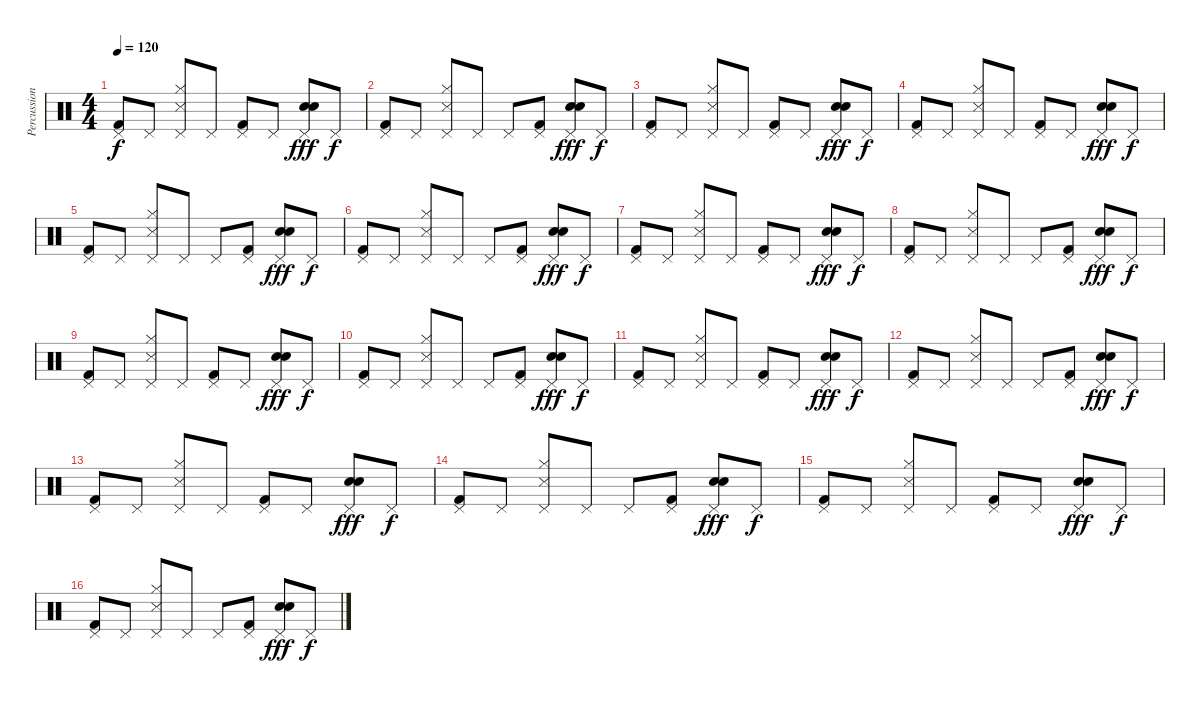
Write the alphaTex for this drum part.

\track ("Percussion" "Percussion") {instrument percussion}
\staff {score}
\articulation defaults
\ts (4 4)
\tempo 120
\clef neutral
\ks c
("Pedal Hi-Hat (hit)" "Kick (hit) 2").8{dy f} "Pedal Hi-Hat (hit)".8 ("Pedal Hi-Hat (hit)" "Hi-Hat (closed)" "Snare (side stick) 3").8 "Pedal Hi-Hat (hit)".8 ("Pedal Hi-Hat (hit)" "Kick (hit) 2").8 "Pedal Hi-Hat (hit)".8 ("Pedal Hi-Hat (hit)" "Hand Clap (hit)" "Hand Clap (hit)").8{dy fff} "Pedal Hi-Hat (hit)".8{dy f} |
("Pedal Hi-Hat (hit)" "Kick (hit) 2").8 "Pedal Hi-Hat (hit)".8 ("Pedal Hi-Hat (hit)" "Hi-Hat (closed)" "Snare (side stick) 3").8 "Pedal Hi-Hat (hit)".8 "Pedal Hi-Hat (hit)".8 ("Pedal Hi-Hat (hit)" "Kick (hit) 2").8 ("Pedal Hi-Hat (hit)" "Hand Clap (hit)" "Hand Clap (hit)").8{dy fff} "Pedal Hi-Hat (hit)".8{dy f} |
("Pedal Hi-Hat (hit)" "Kick (hit) 2").8 "Pedal Hi-Hat (hit)".8 ("Pedal Hi-Hat (hit)" "Hi-Hat (closed)" "Snare (side stick) 3").8 "Pedal Hi-Hat (hit)".8 ("Pedal Hi-Hat (hit)" "Kick (hit) 2").8 "Pedal Hi-Hat (hit)".8 ("Pedal Hi-Hat (hit)" "Hand Clap (hit)" "Hand Clap (hit)").8{dy fff} "Pedal Hi-Hat (hit)".8{dy f} |
("Pedal Hi-Hat (hit)" "Kick (hit) 2").8 "Pedal Hi-Hat (hit)".8 ("Pedal Hi-Hat (hit)" "Hi-Hat (closed)" "Snare (side stick) 3").8 "Pedal Hi-Hat (hit)".8 ("Pedal Hi-Hat (hit)" "Kick (hit) 2").8 "Pedal Hi-Hat (hit)".8 ("Pedal Hi-Hat (hit)" "Hand Clap (hit)" "Hand Clap (hit)").8{dy fff} "Pedal Hi-Hat (hit)".8{dy f} |
("Pedal Hi-Hat (hit)" "Kick (hit) 2").8 "Pedal Hi-Hat (hit)".8 ("Pedal Hi-Hat (hit)" "Hi-Hat (closed)" "Snare (side stick) 3").8 "Pedal Hi-Hat (hit)".8 "Pedal Hi-Hat (hit)".8 ("Pedal Hi-Hat (hit)" "Kick (hit) 2").8 ("Pedal Hi-Hat (hit)" "Hand Clap (hit)" "Hand Clap (hit)").8{dy fff} "Pedal Hi-Hat (hit)".8{dy f} |
("Pedal Hi-Hat (hit)" "Kick (hit) 2").8 "Pedal Hi-Hat (hit)".8 ("Pedal Hi-Hat (hit)" "Hi-Hat (closed)" "Snare (side stick) 3").8 "Pedal Hi-Hat (hit)".8 "Pedal Hi-Hat (hit)".8 ("Pedal Hi-Hat (hit)" "Kick (hit) 2").8 ("Pedal Hi-Hat (hit)" "Hand Clap (hit)" "Hand Clap (hit)").8{dy fff} "Pedal Hi-Hat (hit)".8{dy f} |
("Pedal Hi-Hat (hit)" "Kick (hit) 2").8 "Pedal Hi-Hat (hit)".8 ("Pedal Hi-Hat (hit)" "Hi-Hat (closed)" "Snare (side stick) 3").8 "Pedal Hi-Hat (hit)".8 ("Pedal Hi-Hat (hit)" "Kick (hit) 2").8 "Pedal Hi-Hat (hit)".8 ("Pedal Hi-Hat (hit)" "Hand Clap (hit)" "Hand Clap (hit)").8{dy fff} "Pedal Hi-Hat (hit)".8{dy f} |
("Pedal Hi-Hat (hit)" "Kick (hit) 2").8 "Pedal Hi-Hat (hit)".8 ("Pedal Hi-Hat (hit)" "Hi-Hat (closed)" "Snare (side stick) 3").8 "Pedal Hi-Hat (hit)".8 "Pedal Hi-Hat (hit)".8 ("Pedal Hi-Hat (hit)" "Kick (hit) 2").8 ("Pedal Hi-Hat (hit)" "Hand Clap (hit)" "Hand Clap (hit)").8{dy fff} "Pedal Hi-Hat (hit)".8{dy f} |
("Pedal Hi-Hat (hit)" "Kick (hit) 2").8 "Pedal Hi-Hat (hit)".8 ("Pedal Hi-Hat (hit)" "Hi-Hat (closed)" "Snare (side stick) 3").8 "Pedal Hi-Hat (hit)".8 ("Pedal Hi-Hat (hit)" "Kick (hit) 2").8 "Pedal Hi-Hat (hit)".8 ("Pedal Hi-Hat (hit)" "Hand Clap (hit)" "Hand Clap (hit)").8{dy fff} "Pedal Hi-Hat (hit)".8{dy f} |
("Pedal Hi-Hat (hit)" "Kick (hit) 2").8 "Pedal Hi-Hat (hit)".8 ("Pedal Hi-Hat (hit)" "Hi-Hat (closed)" "Snare (side stick) 3").8 "Pedal Hi-Hat (hit)".8 "Pedal Hi-Hat (hit)".8 ("Pedal Hi-Hat (hit)" "Kick (hit) 2").8 ("Pedal Hi-Hat (hit)" "Hand Clap (hit)" "Hand Clap (hit)").8{dy fff} "Pedal Hi-Hat (hit)".8{dy f} |
("Pedal Hi-Hat (hit)" "Kick (hit) 2").8 "Pedal Hi-Hat (hit)".8 ("Pedal Hi-Hat (hit)" "Hi-Hat (closed)" "Snare (side stick) 3").8 "Pedal Hi-Hat (hit)".8 ("Pedal Hi-Hat (hit)" "Kick (hit) 2").8 "Pedal Hi-Hat (hit)".8 ("Pedal Hi-Hat (hit)" "Hand Clap (hit)" "Hand Clap (hit)").8{dy fff} "Pedal Hi-Hat (hit)".8{dy f} |
("Pedal Hi-Hat (hit)" "Kick (hit) 2").8 "Pedal Hi-Hat (hit)".8 ("Pedal Hi-Hat (hit)" "Hi-Hat (closed)" "Snare (side stick) 3").8 "Pedal Hi-Hat (hit)".8 "Pedal Hi-Hat (hit)".8 ("Pedal Hi-Hat (hit)" "Kick (hit) 2").8 ("Pedal Hi-Hat (hit)" "Hand Clap (hit)" "Hand Clap (hit)").8{dy fff} "Pedal Hi-Hat (hit)".8{dy f} |
("Pedal Hi-Hat (hit)" "Kick (hit) 2").8 "Pedal Hi-Hat (hit)".8 ("Pedal Hi-Hat (hit)" "Hi-Hat (closed)" "Snare (side stick) 3").8 "Pedal Hi-Hat (hit)".8 ("Pedal Hi-Hat (hit)" "Kick (hit) 2").8 "Pedal Hi-Hat (hit)".8 ("Pedal Hi-Hat (hit)" "Hand Clap (hit)" "Hand Clap (hit)").8{dy fff} "Pedal Hi-Hat (hit)".8{dy f} |
("Pedal Hi-Hat (hit)" "Kick (hit) 2").8 "Pedal Hi-Hat (hit)".8 ("Pedal Hi-Hat (hit)" "Hi-Hat (closed)" "Snare (side stick) 3").8 "Pedal Hi-Hat (hit)".8 "Pedal Hi-Hat (hit)".8 ("Pedal Hi-Hat (hit)" "Kick (hit) 2").8 ("Pedal Hi-Hat (hit)" "Hand Clap (hit)" "Hand Clap (hit)").8{dy fff} "Pedal Hi-Hat (hit)".8{dy f} |
("Pedal Hi-Hat (hit)" "Kick (hit) 2").8 "Pedal Hi-Hat (hit)".8 ("Pedal Hi-Hat (hit)" "Hi-Hat (closed)" "Snare (side stick) 3").8 "Pedal Hi-Hat (hit)".8 ("Pedal Hi-Hat (hit)" "Kick (hit) 2").8 "Pedal Hi-Hat (hit)".8 ("Pedal Hi-Hat (hit)" "Hand Clap (hit)" "Hand Clap (hit)").8{dy fff} "Pedal Hi-Hat (hit)".8{dy f} |
("Pedal Hi-Hat (hit)" "Kick (hit) 2").8 "Pedal Hi-Hat (hit)".8 ("Pedal Hi-Hat (hit)" "Hi-Hat (closed)" "Snare (side stick) 3").8 "Pedal Hi-Hat (hit)".8 "Pedal Hi-Hat (hit)".8 ("Pedal Hi-Hat (hit)" "Kick (hit) 2").8 ("Pedal Hi-Hat (hit)" "Hand Clap (hit)" "Hand Clap (hit)").8{dy fff} "Pedal Hi-Hat (hit)".8{dy f}
